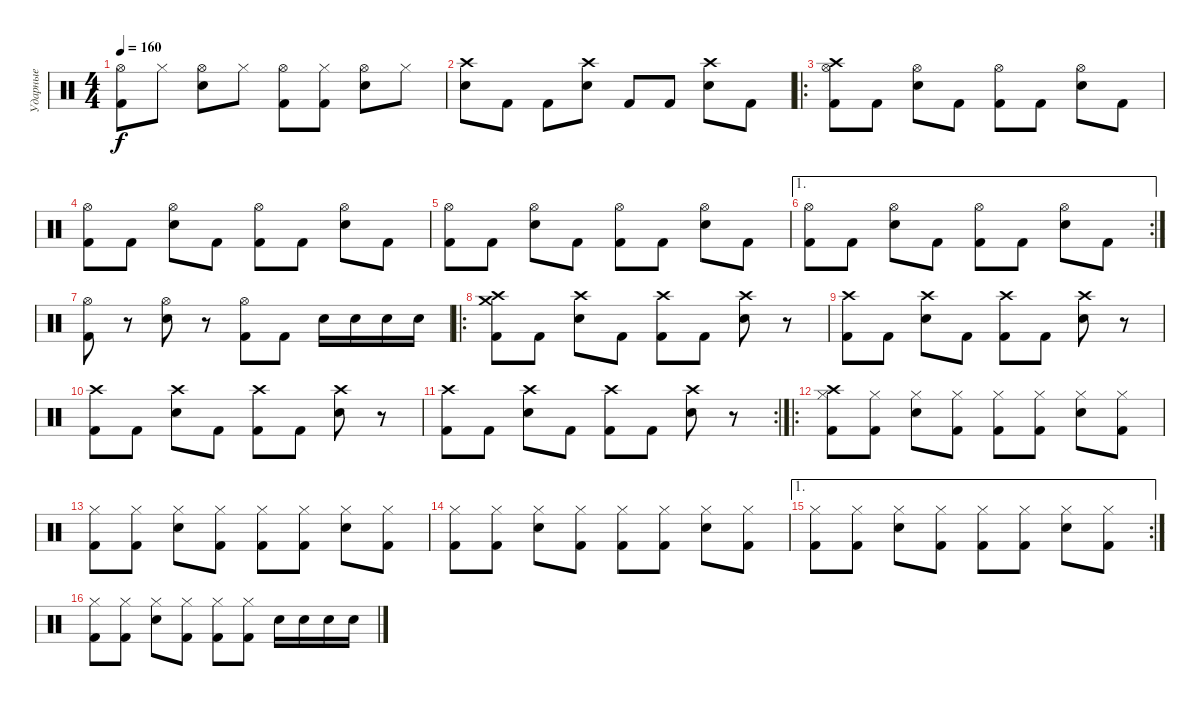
\track ("Ударные" "Ударные") {instrument percussion}
\staff {score}
\articulation defaults
\ts (4 4)
\tempo 160
\clef neutral
\ks c
("Kick (hit) 2" "Hi-Hat (open)").8{dy f} "Hi-Hat (closed)".8 ("Snare (hit) 2" "Hi-Hat (open)").8 "Hi-Hat (closed)".8 ("Kick (hit) 2" "Hi-Hat (open)").8 ("Kick (hit) 2" "Hi-Hat (closed)").8 ("Snare (hit) 2" "Hi-Hat (open)").8 "Hi-Hat (closed)".8 |
("Snare (hit) 2" "Crash high (hit)").8 "Kick (hit) 2".8 "Kick (hit) 2".8 ("Snare (hit) 2" "Crash high (hit)").8 "Kick (hit) 2".8 "Kick (hit) 2".8 ("Snare (hit) 2" "Crash high (hit)").8 "Kick (hit) 2".8 |
\ro
("Kick (hit) 2" "Hi-Hat (open)" "Crash high (hit)").8 "Kick (hit) 2".8 ("Snare (hit) 2" "Hi-Hat (open)").8 "Kick (hit) 2".8 ("Kick (hit) 2" "Hi-Hat (open)").8 "Kick (hit) 2".8 ("Snare (hit) 2" "Hi-Hat (open)").8 "Kick (hit) 2".8 |
("Kick (hit) 2" "Hi-Hat (open)").8 "Kick (hit) 2".8 ("Snare (hit) 2" "Hi-Hat (open)").8 "Kick (hit) 2".8 ("Kick (hit) 2" "Hi-Hat (open)").8 "Kick (hit) 2".8 ("Snare (hit) 2" "Hi-Hat (open)").8 "Kick (hit) 2".8 |
("Kick (hit) 2" "Hi-Hat (open)").8 "Kick (hit) 2".8 ("Snare (hit) 2" "Hi-Hat (open)").8 "Kick (hit) 2".8 ("Kick (hit) 2" "Hi-Hat (open)").8 "Kick (hit) 2".8 ("Snare (hit) 2" "Hi-Hat (open)").8 "Kick (hit) 2".8 |
\ae 1
\rc 2
("Kick (hit) 2" "Hi-Hat (open)").8 "Kick (hit) 2".8 ("Snare (hit) 2" "Hi-Hat (open)").8 "Kick (hit) 2".8 ("Kick (hit) 2" "Hi-Hat (open)").8 "Kick (hit) 2".8 ("Snare (hit) 2" "Hi-Hat (open)").8 "Kick (hit) 2".8 |
("Kick (hit) 2" "Hi-Hat (open)").8 r.8 ("Snare (hit) 2" "Hi-Hat (open)").8 r.8 ("Kick (hit) 2" "Hi-Hat (open)").8 "Kick (hit) 2".8 "Snare (hit) 2".16 "Snare (hit) 2".16 "Snare (hit) 2".16 "Snare (hit) 2".16 |
\ro
("Kick (hit) 2" "Crash high (hit)" "Crash medium (hit)").8 "Kick (hit) 2".8 ("Snare (hit) 2" "Crash high (hit)").8 "Kick (hit) 2".8 ("Kick (hit) 2" "Crash high (hit)").8 "Kick (hit) 2".8 ("Snare (hit) 2" "Crash high (hit)").8 r.8 |
("Kick (hit) 2" "Crash high (hit)").8 "Kick (hit) 2".8 ("Snare (hit) 2" "Crash high (hit)").8 "Kick (hit) 2".8 ("Kick (hit) 2" "Crash high (hit)").8 "Kick (hit) 2".8 ("Snare (hit) 2" "Crash high (hit)").8 r.8 |
("Kick (hit) 2" "Crash high (hit)").8 "Kick (hit) 2".8 ("Snare (hit) 2" "Crash high (hit)").8 "Kick (hit) 2".8 ("Kick (hit) 2" "Crash high (hit)").8 "Kick (hit) 2".8 ("Snare (hit) 2" "Crash high (hit)").8 r.8 |
\rc 2
("Kick (hit) 2" "Crash high (hit)").8 "Kick (hit) 2".8 ("Snare (hit) 2" "Crash high (hit)").8 "Kick (hit) 2".8 ("Kick (hit) 2" "Crash high (hit)").8 "Kick (hit) 2".8 ("Snare (hit) 2" "Crash high (hit)").8 r.8 |
\ro
("Kick (hit) 2" "Hi-Hat (closed)" "Crash high (hit)").8 ("Kick (hit) 2" "Hi-Hat (closed)").8 ("Snare (hit) 2" "Hi-Hat (closed)").8 ("Kick (hit) 2" "Hi-Hat (closed)").8 ("Kick (hit) 2" "Hi-Hat (closed)").8 ("Kick (hit) 2" "Hi-Hat (closed)").8 ("Snare (hit) 2" "Hi-Hat (closed)").8 ("Kick (hit) 2" "Hi-Hat (closed)").8 |
("Kick (hit) 2" "Hi-Hat (closed)").8 ("Kick (hit) 2" "Hi-Hat (closed)").8 ("Snare (hit) 2" "Hi-Hat (closed)").8 ("Kick (hit) 2" "Hi-Hat (closed)").8 ("Kick (hit) 2" "Hi-Hat (closed)").8 ("Kick (hit) 2" "Hi-Hat (closed)").8 ("Snare (hit) 2" "Hi-Hat (closed)").8 ("Kick (hit) 2" "Hi-Hat (closed)").8 |
("Kick (hit) 2" "Hi-Hat (closed)").8 ("Kick (hit) 2" "Hi-Hat (closed)").8 ("Snare (hit) 2" "Hi-Hat (closed)").8 ("Kick (hit) 2" "Hi-Hat (closed)").8 ("Kick (hit) 2" "Hi-Hat (closed)").8 ("Kick (hit) 2" "Hi-Hat (closed)").8 ("Snare (hit) 2" "Hi-Hat (closed)").8 ("Kick (hit) 2" "Hi-Hat (closed)").8 |
\ae 1
\rc 2
("Kick (hit) 2" "Hi-Hat (closed)").8 ("Kick (hit) 2" "Hi-Hat (closed)").8 ("Snare (hit) 2" "Hi-Hat (closed)").8 ("Kick (hit) 2" "Hi-Hat (closed)").8 ("Kick (hit) 2" "Hi-Hat (closed)").8 ("Kick (hit) 2" "Hi-Hat (closed)").8 ("Snare (hit) 2" "Hi-Hat (closed)").8 ("Kick (hit) 2" "Hi-Hat (closed)").8 |
("Kick (hit) 2" "Hi-Hat (closed)").8 ("Kick (hit) 2" "Hi-Hat (closed)").8 ("Snare (hit) 2" "Hi-Hat (closed)").8 ("Kick (hit) 2" "Hi-Hat (closed)").8 ("Kick (hit) 2" "Hi-Hat (closed)").8 ("Kick (hit) 2" "Hi-Hat (closed)").8 "Snare (hit) 2".16 "Snare (hit) 2".16 "Snare (hit) 2".16 "Snare (hit) 2".16
